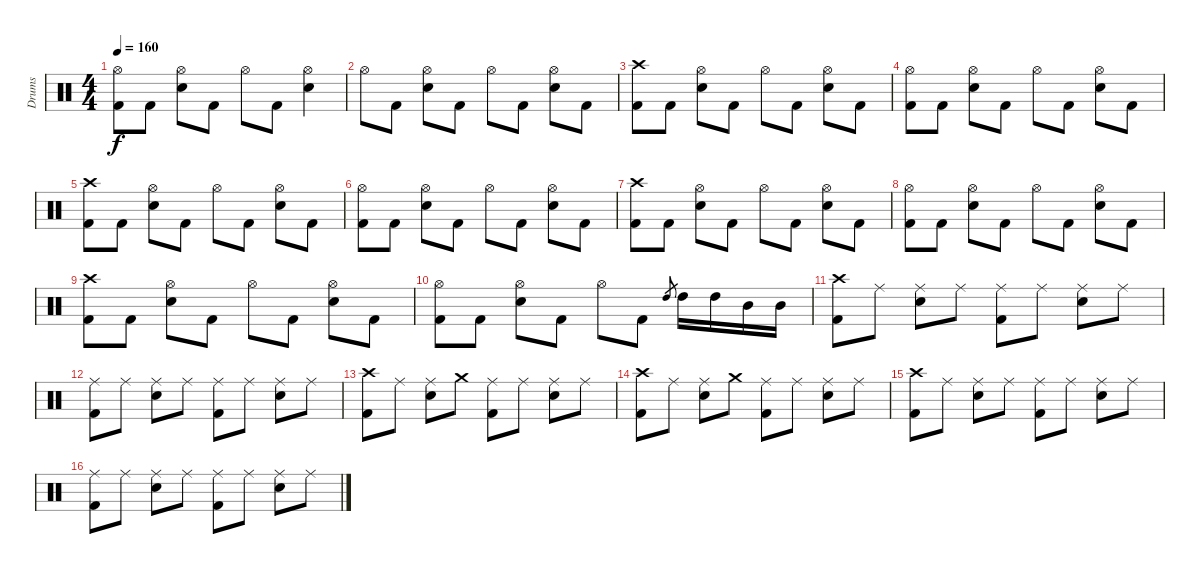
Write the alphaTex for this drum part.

\track ("Drums" "Drums") {instrument percussion}
\staff {score}
\articulation defaults
\ts (4 4)
\tempo 160
\clef neutral
\ks c
("Hi-Hat (open)" "Kick (hit) 2").8{dy f} "Kick (hit) 2".8 ("Hi-Hat (open)" "Electric Snare (hit)").8 "Kick (hit) 2".8 "Hi-Hat (open)".8 "Kick (hit) 2".8 ("Hi-Hat (open)" "Electric Snare (hit)").4 |
"Hi-Hat (open)".8 "Kick (hit) 2".8 ("Hi-Hat (open)" "Electric Snare (hit)").8 "Kick (hit) 2".8 "Hi-Hat (open)".8 "Kick (hit) 2".8 ("Hi-Hat (open)" "Electric Snare (hit)").8 "Kick (hit) 2".8 |
\section ("" "")
("Crash high (hit)" "Kick (hit) 2").8 "Kick (hit) 2".8 ("Hi-Hat (open)" "Electric Snare (hit)").8 "Kick (hit) 2".8 "Hi-Hat (open)".8 "Kick (hit) 2".8 ("Hi-Hat (open)" "Electric Snare (hit)").8 "Kick (hit) 2".8 |
("Hi-Hat (open)" "Kick (hit) 2").8 "Kick (hit) 2".8 ("Hi-Hat (open)" "Electric Snare (hit)").8 "Kick (hit) 2".8 "Hi-Hat (open)".8 "Kick (hit) 2".8 ("Hi-Hat (open)" "Electric Snare (hit)").8 "Kick (hit) 2".8 |
("Crash high (hit)" "Kick (hit) 2").8 "Kick (hit) 2".8 ("Hi-Hat (open)" "Electric Snare (hit)").8 "Kick (hit) 2".8 "Hi-Hat (open)".8 "Kick (hit) 2".8 ("Hi-Hat (open)" "Electric Snare (hit)").8 "Kick (hit) 2".8 |
("Hi-Hat (open)" "Kick (hit) 2").8 "Kick (hit) 2".8 ("Hi-Hat (open)" "Electric Snare (hit)").8 "Kick (hit) 2".8 "Hi-Hat (open)".8 "Kick (hit) 2".8 ("Hi-Hat (open)" "Electric Snare (hit)").8 "Kick (hit) 2".8 |
("Crash high (hit)" "Kick (hit) 2").8 "Kick (hit) 2".8 ("Hi-Hat (open)" "Electric Snare (hit)").8 "Kick (hit) 2".8 "Hi-Hat (open)".8 "Kick (hit) 2".8 ("Hi-Hat (open)" "Electric Snare (hit)").8 "Kick (hit) 2".8 |
("Hi-Hat (open)" "Kick (hit) 2").8 "Kick (hit) 2".8 ("Hi-Hat (open)" "Electric Snare (hit)").8 "Kick (hit) 2".8 "Hi-Hat (open)".8 "Kick (hit) 2".8 ("Hi-Hat (open)" "Electric Snare (hit)").8 "Kick (hit) 2".8 |
("Crash high (hit)" "Kick (hit) 2").8 "Kick (hit) 2".8 ("Hi-Hat (open)" "Electric Snare (hit)").8 "Kick (hit) 2".8 "Hi-Hat (open)".8 "Kick (hit) 2".8 ("Hi-Hat (open)" "Electric Snare (hit)").8 "Kick (hit) 2".8 |
("Hi-Hat (open)" "Kick (hit) 2").8 "Kick (hit) 2".8 ("Hi-Hat (open)" "Electric Snare (hit)").8 "Kick (hit) 2".8 "Hi-Hat (open)".8 "Kick (hit) 2".8 "High Tom (hit)".8{gr} "High Tom (hit)".16 "High Tom (hit)".16 "Mid Tom (hit)".16 "Mid Tom (hit)".16 |
\section ("" "")
("Crash high (hit)" "Kick (hit) 2").8 "Ride (middle)".8 ("Ride (middle)" "Electric Snare (hit)").8 "Ride (middle)".8 ("Ride (middle)" "Kick (hit) 2").8 "Ride (middle)".8 ("Ride (middle)" "Electric Snare (hit)").8 "Ride (middle)".8 |
("Ride (middle)" "Kick (hit) 2").8 "Ride (middle)".8 ("Ride (middle)" "Electric Snare (hit)").8 "Ride (middle)".8 ("Ride (middle)" "Kick (hit) 2").8 "Ride (middle)".8 ("Ride (middle)" "Electric Snare (hit)").8 "Ride (middle)".8 |
("Crash high (hit)" "Kick (hit) 2").8 "Ride (middle)".8 ("Ride (middle)" "Electric Snare (hit)").8 "Crash medium (hit)".8 ("Ride (middle)" "Kick (hit) 2").8 "Ride (middle)".8 ("Ride (middle)" "Electric Snare (hit)").8 "Ride (middle)".8 |
("Crash high (hit)" "Kick (hit) 2").8 "Ride (middle)".8 ("Ride (middle)" "Electric Snare (hit)").8 "Crash medium (hit)".8 ("Ride (middle)" "Kick (hit) 2").8 "Ride (middle)".8 ("Ride (middle)" "Electric Snare (hit)").8 "Ride (middle)".8 |
("Crash high (hit)" "Kick (hit) 2").8 "Ride (middle)".8 ("Ride (middle)" "Electric Snare (hit)").8 "Ride (middle)".8 ("Ride (middle)" "Kick (hit) 2").8 "Ride (middle)".8 ("Ride (middle)" "Electric Snare (hit)").8 "Ride (middle)".8 |
("Ride (middle)" "Kick (hit) 2").8 "Ride (middle)".8 ("Ride (middle)" "Electric Snare (hit)").8 "Ride (middle)".8 ("Ride (middle)" "Kick (hit) 2").8 "Ride (middle)".8 ("Ride (middle)" "Electric Snare (hit)").8 "Ride (middle)".8
